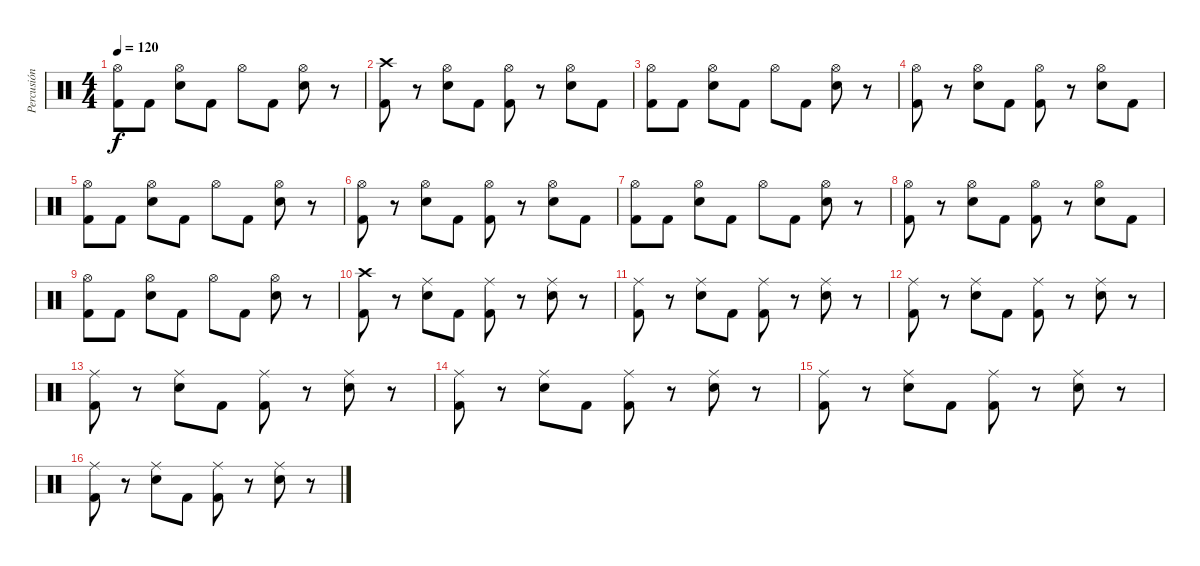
\track ("Percusión" "Percusión") {instrument percussion}
\staff {score}
\articulation defaults
\ts (4 4)
\tempo 120
\clef neutral
\ks c
("Hi-Hat (open)" "Kick (hit) 2").8{dy f} "Kick (hit) 2".8 ("Hi-Hat (open)" "Snare (hit) 2").8 "Kick (hit) 2".8 "Hi-Hat (open)".8 "Kick (hit) 2".8 ("Hi-Hat (open)" "Snare (hit) 2").8 r.8 |
("Crash high (hit)" "Kick (hit) 2").8 r.8 ("Hi-Hat (open)" "Snare (hit) 2").8 "Kick (hit) 2".8 ("Hi-Hat (open)" "Kick (hit) 2").8 r.8 ("Hi-Hat (open)" "Snare (hit) 2").8 "Kick (hit) 2".8 |
("Hi-Hat (open)" "Kick (hit) 2").8 "Kick (hit) 2".8 ("Hi-Hat (open)" "Snare (hit) 2").8 "Kick (hit) 2".8 "Hi-Hat (open)".8 "Kick (hit) 2".8 ("Hi-Hat (open)" "Snare (hit) 2").8 r.8 |
("Hi-Hat (open)" "Kick (hit) 2").8 r.8 ("Hi-Hat (open)" "Snare (hit) 2").8 "Kick (hit) 2".8 ("Hi-Hat (open)" "Kick (hit) 2").8 r.8 ("Hi-Hat (open)" "Snare (hit) 2").8 "Kick (hit) 2".8 |
("Hi-Hat (open)" "Kick (hit) 2").8 "Kick (hit) 2".8 ("Hi-Hat (open)" "Snare (hit) 2").8 "Kick (hit) 2".8 "Hi-Hat (open)".8 "Kick (hit) 2".8 ("Hi-Hat (open)" "Snare (hit) 2").8 r.8 |
("Hi-Hat (open)" "Kick (hit) 2").8 r.8 ("Hi-Hat (open)" "Snare (hit) 2").8 "Kick (hit) 2".8 ("Hi-Hat (open)" "Kick (hit) 2").8 r.8 ("Hi-Hat (open)" "Snare (hit) 2").8 "Kick (hit) 2".8 |
("Hi-Hat (open)" "Kick (hit) 2").8 "Kick (hit) 2".8 ("Hi-Hat (open)" "Snare (hit) 2").8 "Kick (hit) 2".8 "Hi-Hat (open)".8 "Kick (hit) 2".8 ("Hi-Hat (open)" "Snare (hit) 2").8 r.8 |
("Hi-Hat (open)" "Kick (hit) 2").8 r.8 ("Hi-Hat (open)" "Snare (hit) 2").8 "Kick (hit) 2".8 ("Hi-Hat (open)" "Kick (hit) 2").8 r.8 ("Hi-Hat (open)" "Snare (hit) 2").8 "Kick (hit) 2".8 |
("Hi-Hat (open)" "Kick (hit) 2").8 "Kick (hit) 2".8 ("Hi-Hat (open)" "Snare (hit) 2").8 "Kick (hit) 2".8 "Hi-Hat (open)".8 "Kick (hit) 2".8 ("Hi-Hat (open)" "Snare (hit) 2").8 r.8 |
("Crash high (hit)" "Kick (hit) 2").8 r.8 ("Ride (middle)" "Snare (hit) 2").8 "Kick (hit) 2".8 ("Ride (middle)" "Kick (hit) 2").8 r.8 ("Ride (middle)" "Snare (hit) 2").8 r.8 |
("Ride (middle)" "Kick (hit) 2").8 r.8 ("Ride (middle)" "Snare (hit) 2").8 "Kick (hit) 2".8 ("Ride (middle)" "Kick (hit) 2").8 r.8 ("Ride (middle)" "Snare (hit) 2").8 r.8 |
("Ride (middle)" "Kick (hit) 2").8 r.8 ("Ride (middle)" "Snare (hit) 2").8 "Kick (hit) 2".8 ("Ride (middle)" "Kick (hit) 2").8 r.8 ("Ride (middle)" "Snare (hit) 2").8 r.8 |
("Ride (middle)" "Kick (hit) 2").8 r.8 ("Ride (middle)" "Snare (hit) 2").8 "Kick (hit) 2".8 ("Ride (middle)" "Kick (hit) 2").8 r.8 ("Ride (middle)" "Snare (hit) 2").8 r.8 |
("Ride (middle)" "Kick (hit) 2").8 r.8 ("Ride (middle)" "Snare (hit) 2").8 "Kick (hit) 2".8 ("Ride (middle)" "Kick (hit) 2").8 r.8 ("Ride (middle)" "Snare (hit) 2").8 r.8 |
("Ride (middle)" "Kick (hit) 2").8 r.8 ("Ride (middle)" "Snare (hit) 2").8 "Kick (hit) 2".8 ("Ride (middle)" "Kick (hit) 2").8 r.8 ("Ride (middle)" "Snare (hit) 2").8 r.8 |
("Ride (middle)" "Kick (hit) 2").8 r.8 ("Ride (middle)" "Snare (hit) 2").8 "Kick (hit) 2".8 ("Ride (middle)" "Kick (hit) 2").8 r.8 ("Ride (middle)" "Snare (hit) 2").8 r.8
